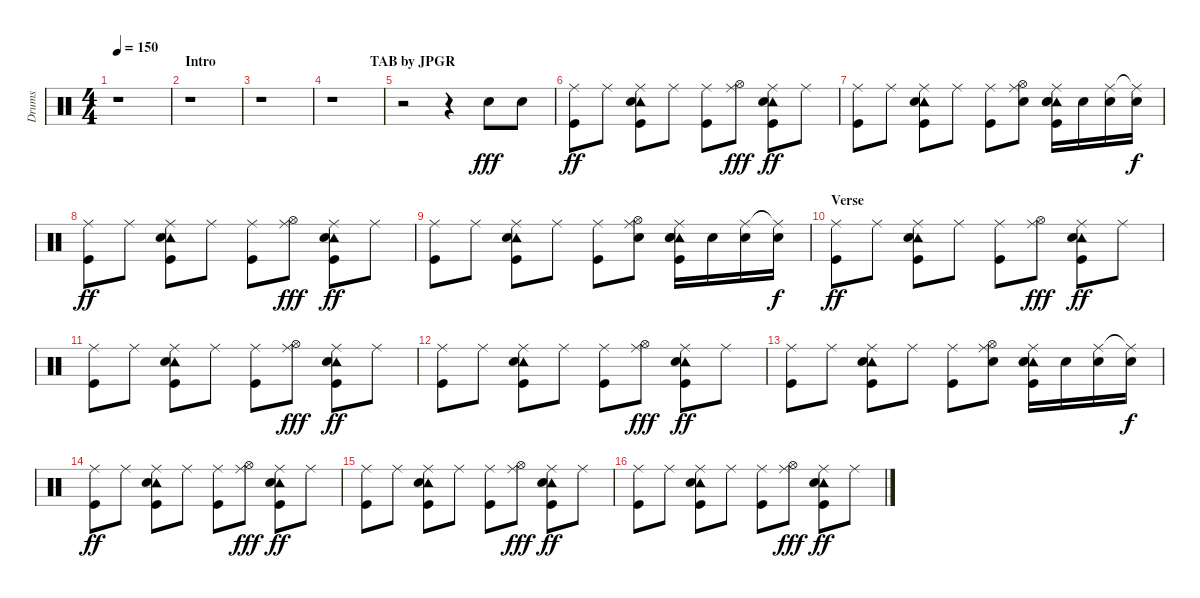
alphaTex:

\track ("Drums" "Drums") {instrument percussion}
\staff {score}
\articulation defaults
\ts (4 4)
\tempo 150
\clef neutral
\ks c
r.1{dy fff} |
\section ("" "Intro                                            TAB by JPGR")
r.1 |
r.1 |
r.1 |
r.2 r.4 "Snare (hit) 2".8 "Snare (hit) 2".8 |
("Ride (middle)" "Kick (hit)").8{dy ff} "Ride (middle)".8 ("Ride (middle)" "Tambourine (hit)" "Electric Snare (hit)" "Kick (hit)").8 "Ride (middle)".8 ("Ride (middle)" "Kick (hit)").8 ("Ride (middle)" "Hi-Hat (open)").8{dy fff} ("Ride (middle)" "Tambourine (hit)" "Electric Snare (hit)" "Kick (hit)").8{dy ff} "Ride (middle)".8 |
("Ride (middle)" "Kick (hit)").8 "Ride (middle)".8 ("Ride (middle)" "Tambourine (hit)" "Electric Snare (hit)" "Kick (hit)").8 "Ride (middle)".8 ("Ride (middle)" "Kick (hit)").8 ("Ride (middle)" "Hi-Hat (open)" "Snare (hit) 2").8 ("Ride (middle)" "Tambourine (hit)" "Electric Snare (hit)" "Snare (hit) 2" "Kick (hit)").16 "Snare (hit) 2".16 ("Ride (middle)" "Snare (hit) 2").16 ("Ride (middle)"{t} "Snare (hit) 2").16{dy f} |
("Ride (middle)" "Kick (hit)").8{dy ff} "Ride (middle)".8 ("Ride (middle)" "Tambourine (hit)" "Electric Snare (hit)" "Kick (hit)").8 "Ride (middle)".8 ("Ride (middle)" "Kick (hit)").8 ("Ride (middle)" "Hi-Hat (open)").8{dy fff} ("Ride (middle)" "Tambourine (hit)" "Electric Snare (hit)" "Kick (hit)").8{dy ff} "Ride (middle)".8 |
("Ride (middle)" "Kick (hit)").8 "Ride (middle)".8 ("Ride (middle)" "Tambourine (hit)" "Electric Snare (hit)" "Kick (hit)").8 "Ride (middle)".8 ("Ride (middle)" "Kick (hit)").8 ("Ride (middle)" "Hi-Hat (open)" "Snare (hit) 2").8 ("Ride (middle)" "Tambourine (hit)" "Electric Snare (hit)" "Snare (hit) 2" "Kick (hit)").16 "Snare (hit) 2".16 ("Ride (middle)" "Snare (hit) 2").16 ("Ride (middle)"{t} "Snare (hit) 2").16{dy f} |
\section ("" "Verse")
("Ride (middle)" "Kick (hit)").8{dy ff} "Ride (middle)".8 ("Ride (middle)" "Tambourine (hit)" "Electric Snare (hit)" "Kick (hit)").8 "Ride (middle)".8 ("Ride (middle)" "Kick (hit)").8 ("Ride (middle)" "Hi-Hat (open)").8{dy fff} ("Ride (middle)" "Tambourine (hit)" "Electric Snare (hit)" "Kick (hit)").8{dy ff} "Ride (middle)".8 |
("Ride (middle)" "Kick (hit)").8 "Ride (middle)".8 ("Ride (middle)" "Tambourine (hit)" "Electric Snare (hit)" "Kick (hit)").8 "Ride (middle)".8 ("Ride (middle)" "Kick (hit)").8 ("Ride (middle)" "Hi-Hat (open)").8{dy fff} ("Ride (middle)" "Tambourine (hit)" "Electric Snare (hit)" "Kick (hit)").8{dy ff} "Ride (middle)".8 |
("Ride (middle)" "Kick (hit)").8 "Ride (middle)".8 ("Ride (middle)" "Tambourine (hit)" "Electric Snare (hit)" "Kick (hit)").8 "Ride (middle)".8 ("Ride (middle)" "Kick (hit)").8 ("Ride (middle)" "Hi-Hat (open)").8{dy fff} ("Ride (middle)" "Tambourine (hit)" "Electric Snare (hit)" "Kick (hit)").8{dy ff} "Ride (middle)".8 |
("Ride (middle)" "Kick (hit)").8 "Ride (middle)".8 ("Ride (middle)" "Tambourine (hit)" "Electric Snare (hit)" "Kick (hit)").8 "Ride (middle)".8 ("Ride (middle)" "Kick (hit)").8 ("Ride (middle)" "Hi-Hat (open)" "Snare (hit) 2").8 ("Ride (middle)" "Tambourine (hit)" "Electric Snare (hit)" "Snare (hit) 2" "Kick (hit)").16 "Snare (hit) 2".16 ("Ride (middle)" "Snare (hit) 2").16 ("Ride (middle)"{t} "Snare (hit) 2").16{dy f} |
("Ride (middle)" "Kick (hit)").8{dy ff} "Ride (middle)".8 ("Ride (middle)" "Tambourine (hit)" "Electric Snare (hit)" "Kick (hit)").8 "Ride (middle)".8 ("Ride (middle)" "Kick (hit)").8 ("Ride (middle)" "Hi-Hat (open)").8{dy fff} ("Ride (middle)" "Tambourine (hit)" "Electric Snare (hit)" "Kick (hit)").8{dy ff} "Ride (middle)".8 |
("Ride (middle)" "Kick (hit)").8 "Ride (middle)".8 ("Ride (middle)" "Tambourine (hit)" "Electric Snare (hit)" "Kick (hit)").8 "Ride (middle)".8 ("Ride (middle)" "Kick (hit)").8 ("Ride (middle)" "Hi-Hat (open)").8{dy fff} ("Ride (middle)" "Tambourine (hit)" "Electric Snare (hit)" "Kick (hit)").8{dy ff} "Ride (middle)".8 |
("Ride (middle)" "Kick (hit)").8 "Ride (middle)".8 ("Ride (middle)" "Tambourine (hit)" "Electric Snare (hit)" "Kick (hit)").8 "Ride (middle)".8 ("Ride (middle)" "Kick (hit)").8 ("Ride (middle)" "Hi-Hat (open)").8{dy fff} ("Ride (middle)" "Tambourine (hit)" "Electric Snare (hit)" "Kick (hit)").8{dy ff} "Ride (middle)".8
